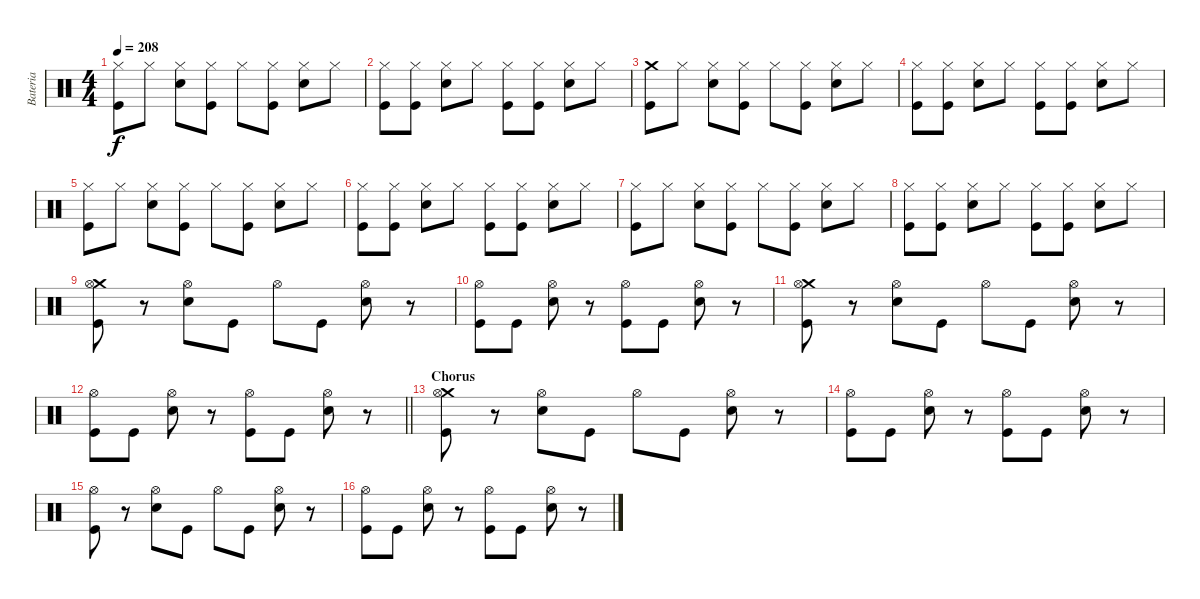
\track ("Bateria" "Bateria") {instrument percussion}
\staff {score}
\articulation defaults
\ts (4 4)
\tempo 208
\clef neutral
\ks c
("Hi-Hat (closed)" "Kick (hit)").8{dy f} "Hi-Hat (closed)".8 ("Hi-Hat (closed)" "Electric Snare (hit)").8 ("Hi-Hat (closed)" "Kick (hit)").8 "Hi-Hat (closed)".8 ("Hi-Hat (closed)" "Kick (hit)").8 ("Hi-Hat (closed)" "Electric Snare (hit)").8 "Hi-Hat (closed)".8 |
("Hi-Hat (closed)" "Kick (hit)").8 ("Hi-Hat (closed)" "Kick (hit)").8 ("Hi-Hat (closed)" "Electric Snare (hit)").8 "Hi-Hat (closed)".8 ("Hi-Hat (closed)" "Kick (hit)").8 ("Hi-Hat (closed)" "Kick (hit)").8 ("Hi-Hat (closed)" "Electric Snare (hit)").8 "Hi-Hat (closed)".8 |
("Crash medium (hit)" "Kick (hit)").8 "Hi-Hat (closed)".8 ("Hi-Hat (closed)" "Electric Snare (hit)").8 ("Hi-Hat (closed)" "Kick (hit)").8 "Hi-Hat (closed)".8 ("Hi-Hat (closed)" "Kick (hit)").8 ("Hi-Hat (closed)" "Electric Snare (hit)").8 "Hi-Hat (closed)".8 |
("Hi-Hat (closed)" "Kick (hit)").8 ("Hi-Hat (closed)" "Kick (hit)").8 ("Hi-Hat (closed)" "Electric Snare (hit)").8 "Hi-Hat (closed)".8 ("Hi-Hat (closed)" "Kick (hit)").8 ("Hi-Hat (closed)" "Kick (hit)").8 ("Hi-Hat (closed)" "Electric Snare (hit)").8 "Hi-Hat (closed)".8 |
("Hi-Hat (closed)" "Kick (hit)").8 "Hi-Hat (closed)".8 ("Hi-Hat (closed)" "Electric Snare (hit)").8 ("Hi-Hat (closed)" "Kick (hit)").8 "Hi-Hat (closed)".8 ("Hi-Hat (closed)" "Kick (hit)").8 ("Hi-Hat (closed)" "Electric Snare (hit)").8 "Hi-Hat (closed)".8 |
("Hi-Hat (closed)" "Kick (hit)").8 ("Hi-Hat (closed)" "Kick (hit)").8 ("Hi-Hat (closed)" "Electric Snare (hit)").8 "Hi-Hat (closed)".8 ("Hi-Hat (closed)" "Kick (hit)").8 ("Hi-Hat (closed)" "Kick (hit)").8 ("Hi-Hat (closed)" "Electric Snare (hit)").8 "Hi-Hat (closed)".8 |
("Hi-Hat (closed)" "Kick (hit)").8 "Hi-Hat (closed)".8 ("Hi-Hat (closed)" "Electric Snare (hit)").8 ("Hi-Hat (closed)" "Kick (hit)").8 "Hi-Hat (closed)".8 ("Hi-Hat (closed)" "Kick (hit)").8 ("Hi-Hat (closed)" "Electric Snare (hit)").8 "Hi-Hat (closed)".8 |
("Hi-Hat (closed)" "Kick (hit)").8 ("Hi-Hat (closed)" "Kick (hit)").8 ("Hi-Hat (closed)" "Electric Snare (hit)").8 "Hi-Hat (closed)".8 ("Hi-Hat (closed)" "Kick (hit)").8 ("Hi-Hat (closed)" "Kick (hit)").8 ("Hi-Hat (closed)" "Electric Snare (hit)").8 "Hi-Hat (closed)".8 |
("Crash medium (hit)" "Hi-Hat (open)" "Kick (hit)").8 r.8 ("Hi-Hat (open)" "Electric Snare (hit)").8 "Kick (hit)".8 "Hi-Hat (open)".8 "Kick (hit)".8 ("Hi-Hat (open)" "Electric Snare (hit)").8 r.8 |
("Hi-Hat (open)" "Kick (hit)").8 "Kick (hit)".8 ("Hi-Hat (open)" "Electric Snare (hit)").8 r.8 ("Hi-Hat (open)" "Kick (hit)").8 "Kick (hit)".8 ("Hi-Hat (open)" "Electric Snare (hit)").8 r.8 |
("Crash medium (hit)" "Hi-Hat (open)" "Kick (hit)").8 r.8 ("Hi-Hat (open)" "Electric Snare (hit)").8 "Kick (hit)".8 "Hi-Hat (open)".8 "Kick (hit)".8 ("Hi-Hat (open)" "Electric Snare (hit)").8 r.8 |
\barLineRight lightlight
("Hi-Hat (open)" "Kick (hit)").8 "Kick (hit)".8 ("Hi-Hat (open)" "Electric Snare (hit)").8 r.8 ("Hi-Hat (open)" "Kick (hit)").8 "Kick (hit)".8 ("Hi-Hat (open)" "Electric Snare (hit)").8 r.8 |
\section ("" "Chorus")
("Crash medium (hit)" "Hi-Hat (open)" "Kick (hit)").8 r.8 ("Hi-Hat (open)" "Electric Snare (hit)").8 "Kick (hit)".8 "Hi-Hat (open)".8 "Kick (hit)".8 ("Hi-Hat (open)" "Electric Snare (hit)").8 r.8 |
("Hi-Hat (open)" "Kick (hit)").8 "Kick (hit)".8 ("Hi-Hat (open)" "Electric Snare (hit)").8 r.8 ("Hi-Hat (open)" "Kick (hit)").8 "Kick (hit)".8 ("Hi-Hat (open)" "Electric Snare (hit)").8 r.8 |
("Hi-Hat (open)" "Kick (hit)").8 r.8 ("Hi-Hat (open)" "Electric Snare (hit)").8 "Kick (hit)".8 "Hi-Hat (open)".8 "Kick (hit)".8 ("Hi-Hat (open)" "Electric Snare (hit)").8 r.8 |
("Hi-Hat (open)" "Kick (hit)").8 "Kick (hit)".8 ("Hi-Hat (open)" "Electric Snare (hit)").8 r.8 ("Hi-Hat (open)" "Kick (hit)").8 "Kick (hit)".8 ("Hi-Hat (open)" "Electric Snare (hit)").8 r.8
